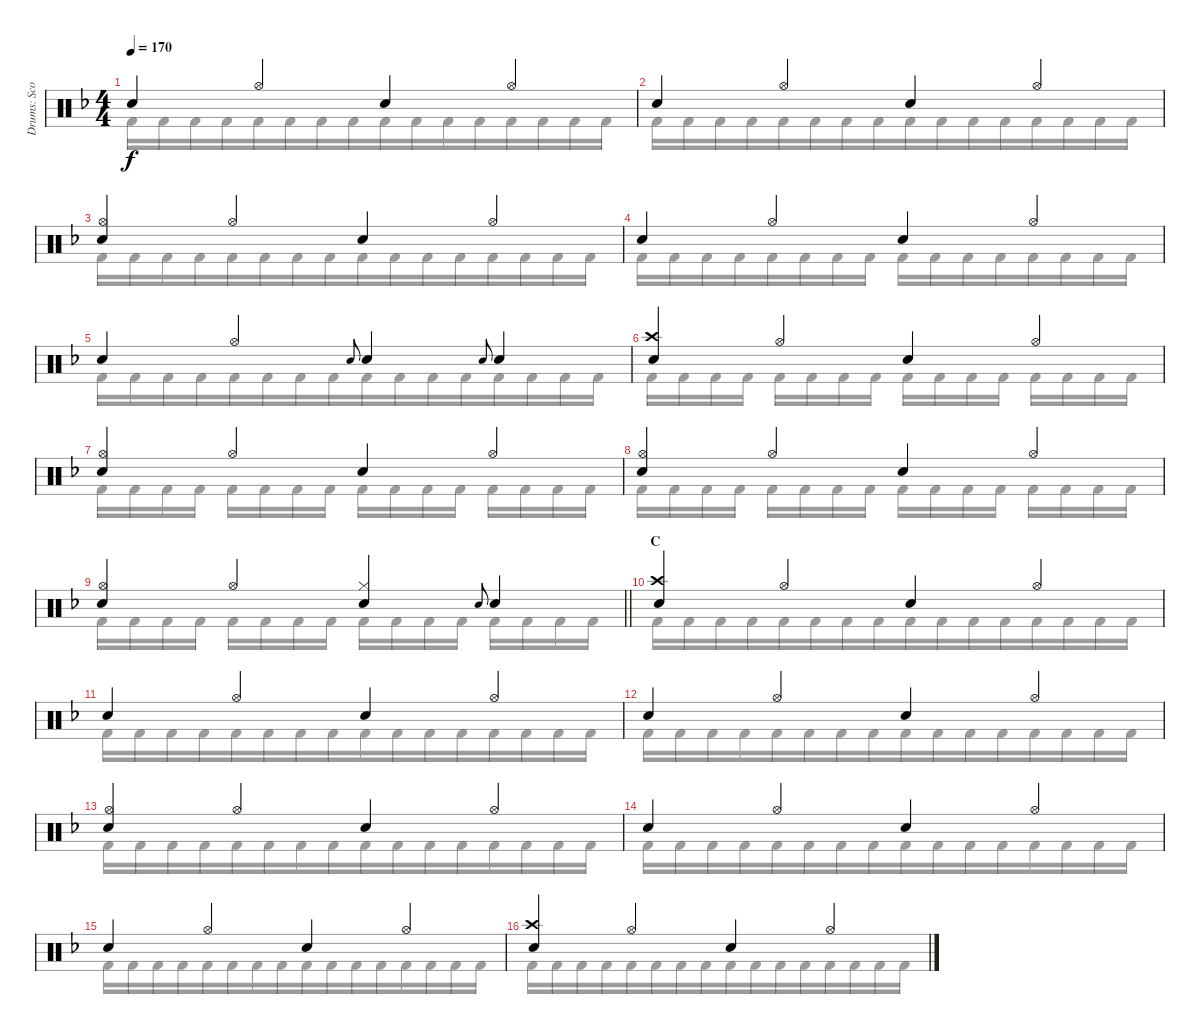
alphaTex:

\track ("Drums: Scott" "Drums: Sco") {instrument percussion}
\staff {score}
\articulation defaults
\voice
\ts (4 4)
\tempo 170
\clef neutral
\ks f "Snare (hit) 2".4{dy f} "Hi-Hat (open)".4 "Snare (hit) 2".4 "Hi-Hat (open)".4
|
"Snare (hit) 2".4 "Hi-Hat (open)".4 "Snare (hit) 2".4 "Hi-Hat (open)".4 |
("Hi-Hat (open)" "Snare (hit) 2").4 "Hi-Hat (open)".4 "Snare (hit) 2".4 "Hi-Hat (open)".4 |
"Snare (hit) 2".4 "Hi-Hat (open)".4 "Snare (hit) 2".4 "Hi-Hat (open)".4 |
"Snare (hit) 2".4 "Hi-Hat (open)".4 "Electric Snare (hit)".8{gr onbeat} "Snare (hit) 2".4 "Electric Snare (hit)".8{gr onbeat} "Snare (hit) 2".4 |
("Crash high (hit)" "Snare (hit) 2").4 "Hi-Hat (open)".4 "Snare (hit) 2".4 "Hi-Hat (open)".4 |
("Hi-Hat (open)" "Snare (hit) 2").4 "Hi-Hat (open)".4 "Snare (hit) 2".4 "Hi-Hat (open)".4 |
("Hi-Hat (open)" "Snare (hit) 2").4 "Hi-Hat (open)".4 "Snare (hit) 2".4 "Hi-Hat (open)".4 |
\barLineRight lightlight
("Hi-Hat (open)" "Snare (hit) 2").4 "Hi-Hat (open)".4 ("Hi-Hat (closed)" "Snare (hit) 2").4 "Electric Snare (hit)".8{gr onbeat} "Snare (hit) 2".4 |
\section ("" "C")
("Crash high (hit)" "Snare (hit) 2").4 "Hi-Hat (open)".4 "Snare (hit) 2".4 "Hi-Hat (open)".4 |
"Snare (hit) 2".4 "Hi-Hat (open)".4 "Snare (hit) 2".4 "Hi-Hat (open)".4 |
"Snare (hit) 2".4 "Hi-Hat (open)".4 "Snare (hit) 2".4 "Hi-Hat (open)".4 |
("Hi-Hat (open)" "Snare (hit) 2").4 "Hi-Hat (open)".4 "Snare (hit) 2".4 "Hi-Hat (open)".4 |
"Snare (hit) 2".4 "Hi-Hat (open)".4 "Snare (hit) 2".4 "Hi-Hat (open)".4 |
"Snare (hit) 2".4 "Hi-Hat (open)".4 "Snare (hit) 2".4 "Hi-Hat (open)".4 |
("Crash high (hit)" "Snare (hit) 2").4 "Hi-Hat (open)".4 "Snare (hit) 2".4 "Hi-Hat (open)".4
\voice
\clef neutral
\ottava regular
\simile none
\ks f "Kick (hit) 2".16{dy f beam merge} "Kick (hit) 2".16{beam merge} "Kick (hit) 2".16{beam merge} "Kick (hit) 2".16{beam merge} "Kick (hit) 2".16{beam merge} "Kick (hit) 2".16{beam merge} "Kick (hit) 2".16{beam merge} "Kick (hit) 2".16{beam merge} "Kick (hit) 2".16{beam merge} "Kick (hit) 2".16{beam merge} "Kick (hit) 2".16{beam merge} "Kick (hit) 2".16{beam merge} "Kick (hit) 2".16{beam merge} "Kick (hit) 2".16{beam merge} "Kick (hit) 2".16{beam merge} "Kick (hit) 2".16
|
"Kick (hit) 2".16{beam merge} "Kick (hit) 2".16{beam merge} "Kick (hit) 2".16{beam merge} "Kick (hit) 2".16{beam merge} "Kick (hit) 2".16{beam merge} "Kick (hit) 2".16{beam merge} "Kick (hit) 2".16{beam merge} "Kick (hit) 2".16{beam merge} "Kick (hit) 2".16{beam merge} "Kick (hit) 2".16{beam merge} "Kick (hit) 2".16{beam merge} "Kick (hit) 2".16{beam merge} "Kick (hit) 2".16{beam merge} "Kick (hit) 2".16{beam merge} "Kick (hit) 2".16{beam merge} "Kick (hit) 2".16 |
"Kick (hit) 2".16{beam merge} "Kick (hit) 2".16{beam merge} "Kick (hit) 2".16{beam merge} "Kick (hit) 2".16{beam merge} "Kick (hit) 2".16{beam merge} "Kick (hit) 2".16{beam merge} "Kick (hit) 2".16{beam merge} "Kick (hit) 2".16{beam merge} "Kick (hit) 2".16{beam merge} "Kick (hit) 2".16{beam merge} "Kick (hit) 2".16{beam merge} "Kick (hit) 2".16{beam merge} "Kick (hit) 2".16{beam merge} "Kick (hit) 2".16{beam merge} "Kick (hit) 2".16{beam merge} "Kick (hit) 2".16 |
"Kick (hit) 2".16{beam merge} "Kick (hit) 2".16{beam merge} "Kick (hit) 2".16{beam merge} "Kick (hit) 2".16{beam merge} "Kick (hit) 2".16{beam merge} "Kick (hit) 2".16{beam merge} "Kick (hit) 2".16{beam merge} "Kick (hit) 2".16 "Kick (hit) 2".16{beam merge} "Kick (hit) 2".16{beam merge} "Kick (hit) 2".16{beam merge} "Kick (hit) 2".16{beam merge} "Kick (hit) 2".16{beam merge} "Kick (hit) 2".16{beam merge} "Kick (hit) 2".16{beam merge} "Kick (hit) 2".16 |
"Kick (hit) 2".16{beam merge} "Kick (hit) 2".16{beam merge} "Kick (hit) 2".16{beam merge} "Kick (hit) 2".16{beam merge} "Kick (hit) 2".16{beam merge} "Kick (hit) 2".16{beam merge} "Kick (hit) 2".16{beam merge} "Kick (hit) 2".16{beam merge} "Kick (hit) 2".16{beam merge} "Kick (hit) 2".16{beam merge} "Kick (hit) 2".16{beam merge} "Kick (hit) 2".16{beam merge} "Kick (hit) 2".16{beam merge} "Kick (hit) 2".16{beam merge} "Kick (hit) 2".16{beam merge} "Kick (hit) 2".16 |
"Kick (hit) 2".16 "Kick (hit) 2".16{beam merge} "Kick (hit) 2".16 "Kick (hit) 2".16 "Kick (hit) 2".16 "Kick (hit) 2".16{beam merge} "Kick (hit) 2".16 "Kick (hit) 2".16 "Kick (hit) 2".16 "Kick (hit) 2".16{beam merge} "Kick (hit) 2".16 "Kick (hit) 2".16 "Kick (hit) 2".16 "Kick (hit) 2".16{beam merge} "Kick (hit) 2".16 "Kick (hit) 2".16 |
"Kick (hit) 2".16 "Kick (hit) 2".16{beam merge} "Kick (hit) 2".16 "Kick (hit) 2".16 "Kick (hit) 2".16 "Kick (hit) 2".16{beam merge} "Kick (hit) 2".16 "Kick (hit) 2".16 "Kick (hit) 2".16 "Kick (hit) 2".16{beam merge} "Kick (hit) 2".16 "Kick (hit) 2".16 "Kick (hit) 2".16 "Kick (hit) 2".16{beam merge} "Kick (hit) 2".16 "Kick (hit) 2".16 |
"Kick (hit) 2".16 "Kick (hit) 2".16{beam merge} "Kick (hit) 2".16 "Kick (hit) 2".16 "Kick (hit) 2".16 "Kick (hit) 2".16{beam merge} "Kick (hit) 2".16 "Kick (hit) 2".16 "Kick (hit) 2".16 "Kick (hit) 2".16{beam merge} "Kick (hit) 2".16 "Kick (hit) 2".16 "Kick (hit) 2".16 "Kick (hit) 2".16{beam merge} "Kick (hit) 2".16 "Kick (hit) 2".16 |
\barLineRight lightlight "Kick (hit) 2".16 "Kick (hit) 2".16{beam merge} "Kick (hit) 2".16 "Kick (hit) 2".16 "Kick (hit) 2".16 "Kick (hit) 2".16{beam merge} "Kick (hit) 2".16 "Kick (hit) 2".16 "Kick (hit) 2".16 "Kick (hit) 2".16{beam merge} "Kick (hit) 2".16 "Kick (hit) 2".16 "Kick (hit) 2".16 "Kick (hit) 2".16{beam merge} "Kick (hit) 2".16 "Kick (hit) 2".16
|
"Kick (hit) 2".16{beam merge} "Kick (hit) 2".16{beam merge} "Kick (hit) 2".16{beam merge} "Kick (hit) 2".16{beam merge} "Kick (hit) 2".16{beam merge} "Kick (hit) 2".16{beam merge} "Kick (hit) 2".16{beam merge} "Kick (hit) 2".16{beam merge} "Kick (hit) 2".16{beam merge} "Kick (hit) 2".16{beam merge} "Kick (hit) 2".16{beam merge} "Kick (hit) 2".16{beam merge} "Kick (hit) 2".16{beam merge} "Kick (hit) 2".16{beam merge} "Kick (hit) 2".16{beam merge} "Kick (hit) 2".16 |
"Kick (hit) 2".16{beam merge} "Kick (hit) 2".16{beam merge} "Kick (hit) 2".16{beam merge} "Kick (hit) 2".16{beam merge} "Kick (hit) 2".16{beam merge} "Kick (hit) 2".16{beam merge} "Kick (hit) 2".16{beam merge} "Kick (hit) 2".16{beam merge} "Kick (hit) 2".16{beam merge} "Kick (hit) 2".16{beam merge} "Kick (hit) 2".16{beam merge} "Kick (hit) 2".16{beam merge} "Kick (hit) 2".16{beam merge} "Kick (hit) 2".16{beam merge} "Kick (hit) 2".16{beam merge} "Kick (hit) 2".16 |
"Kick (hit) 2".16{beam merge} "Kick (hit) 2".16{beam merge} "Kick (hit) 2".16{beam merge} "Kick (hit) 2".16{beam merge} "Kick (hit) 2".16{beam merge} "Kick (hit) 2".16{beam merge} "Kick (hit) 2".16{beam merge} "Kick (hit) 2".16{beam merge} "Kick (hit) 2".16{beam merge} "Kick (hit) 2".16{beam merge} "Kick (hit) 2".16{beam merge} "Kick (hit) 2".16{beam merge} "Kick (hit) 2".16{beam merge} "Kick (hit) 2".16{beam merge} "Kick (hit) 2".16{beam merge} "Kick (hit) 2".16 |
"Kick (hit) 2".16{beam merge} "Kick (hit) 2".16{beam merge} "Kick (hit) 2".16{beam merge} "Kick (hit) 2".16{beam merge} "Kick (hit) 2".16{beam merge} "Kick (hit) 2".16{beam merge} "Kick (hit) 2".16{beam merge} "Kick (hit) 2".16{beam merge} "Kick (hit) 2".16{beam merge} "Kick (hit) 2".16{beam merge} "Kick (hit) 2".16{beam merge} "Kick (hit) 2".16{beam merge} "Kick (hit) 2".16{beam merge} "Kick (hit) 2".16{beam merge} "Kick (hit) 2".16{beam merge} "Kick (hit) 2".16 |
"Kick (hit) 2".16{beam merge} "Kick (hit) 2".16{beam merge} "Kick (hit) 2".16{beam merge} "Kick (hit) 2".16{beam merge} "Kick (hit) 2".16{beam merge} "Kick (hit) 2".16{beam merge} "Kick (hit) 2".16{beam merge} "Kick (hit) 2".16{beam merge} "Kick (hit) 2".16{beam merge} "Kick (hit) 2".16{beam merge} "Kick (hit) 2".16{beam merge} "Kick (hit) 2".16{beam merge} "Kick (hit) 2".16{beam merge} "Kick (hit) 2".16{beam merge} "Kick (hit) 2".16{beam merge} "Kick (hit) 2".16 |
"Kick (hit) 2".16{beam merge} "Kick (hit) 2".16{beam merge} "Kick (hit) 2".16{beam merge} "Kick (hit) 2".16{beam merge} "Kick (hit) 2".16{beam merge} "Kick (hit) 2".16{beam merge} "Kick (hit) 2".16{beam merge} "Kick (hit) 2".16{beam merge} "Kick (hit) 2".16{beam merge} "Kick (hit) 2".16{beam merge} "Kick (hit) 2".16{beam merge} "Kick (hit) 2".16{beam merge} "Kick (hit) 2".16{beam merge} "Kick (hit) 2".16{beam merge} "Kick (hit) 2".16{beam merge} "Kick (hit) 2".16 |
"Kick (hit) 2".16{beam merge} "Kick (hit) 2".16{beam merge} "Kick (hit) 2".16{beam merge} "Kick (hit) 2".16{beam merge} "Kick (hit) 2".16{beam merge} "Kick (hit) 2".16{beam merge} "Kick (hit) 2".16{beam merge} "Kick (hit) 2".16{beam merge} "Kick (hit) 2".16{beam merge} "Kick (hit) 2".16{beam merge} "Kick (hit) 2".16{beam merge} "Kick (hit) 2".16{beam merge} "Kick (hit) 2".16{beam merge} "Kick (hit) 2".16{beam merge} "Kick (hit) 2".16{beam merge} "Kick (hit) 2".16
